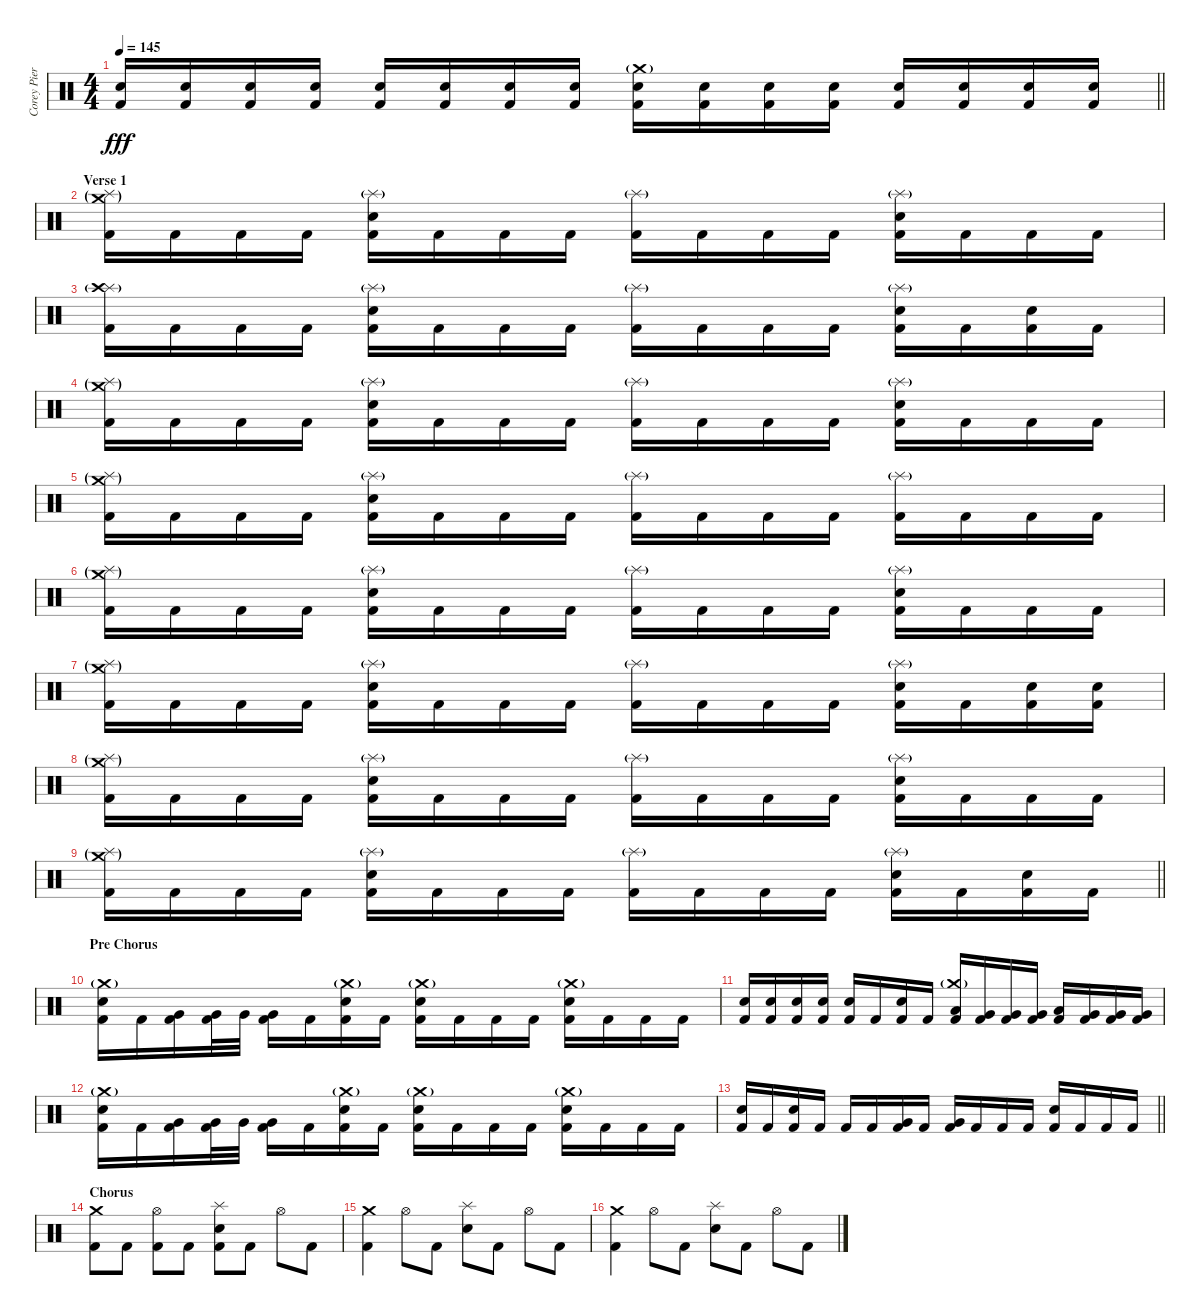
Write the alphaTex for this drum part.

\track ("Corey Pierce" "Corey Pier") {instrument percussion}
\staff {score}
\articulation defaults
\ts (4 4)
\tempo 145
\clef neutral
\barLineRight lightlight
\ks c
("Electric Snare (hit)" "Kick (hit) 2").16{dy fff} ("Electric Snare (hit)" "Kick (hit) 2").16 ("Electric Snare (hit)" "Kick (hit) 2").16 ("Electric Snare (hit)" "Kick (hit) 2").16 ("Electric Snare (hit)" "Kick (hit) 2").16 ("Electric Snare (hit)" "Kick (hit) 2").16 ("Electric Snare (hit)" "Kick (hit) 2").16 ("Electric Snare (hit)" "Kick (hit) 2").16 ("Crash medium (hit)"{g} "Electric Snare (hit)" "Kick (hit) 2").16 ("Electric Snare (hit)" "Kick (hit) 2").16 ("Electric Snare (hit)" "Kick (hit) 2").16 ("Electric Snare (hit)" "Kick (hit) 2").16 ("Electric Snare (hit)" "Kick (hit) 2").16 ("Electric Snare (hit)" "Kick (hit) 2").16 ("Electric Snare (hit)" "Kick (hit) 2").16 ("Electric Snare (hit)" "Kick (hit) 2").16 |
\section ("" "Verse 1")
("Splash (hit)"{g} "Crash medium (hit)"{g} "Kick (hit) 2").16 "Kick (hit) 2".16 "Kick (hit) 2".16 "Kick (hit) 2".16 ("Splash (hit)"{g} "Electric Snare (hit)" "Kick (hit) 2").16 "Kick (hit) 2".16 "Kick (hit) 2".16 "Kick (hit) 2".16 ("Splash (hit)"{g} "Kick (hit) 2").16 "Kick (hit) 2".16 "Kick (hit) 2".16 "Kick (hit) 2".16 ("Splash (hit)"{g} "Electric Snare (hit)" "Kick (hit) 2").16 "Kick (hit) 2".16 "Kick (hit) 2".16 "Kick (hit) 2".16 |
("Splash (hit)"{g} "Crash high (hit)"{g} "Kick (hit) 2").16 "Kick (hit) 2".16 "Kick (hit) 2".16 "Kick (hit) 2".16 ("Splash (hit)"{g} "Electric Snare (hit)" "Kick (hit) 2").16 "Kick (hit) 2".16 "Kick (hit) 2".16 "Kick (hit) 2".16 ("Splash (hit)"{g} "Kick (hit) 2").16 "Kick (hit) 2".16 "Kick (hit) 2".16 "Kick (hit) 2".16 ("Splash (hit)"{g} "Electric Snare (hit)" "Kick (hit) 2").16 "Kick (hit) 2".16 ("Electric Snare (hit)" "Kick (hit) 2").16 "Kick (hit) 2".16 |
("Splash (hit)"{g} "Crash medium (hit)"{g} "Kick (hit) 2").16 "Kick (hit) 2".16 "Kick (hit) 2".16 "Kick (hit) 2".16 ("Splash (hit)"{g} "Electric Snare (hit)" "Kick (hit) 2").16 "Kick (hit) 2".16 "Kick (hit) 2".16 "Kick (hit) 2".16 ("Splash (hit)"{g} "Kick (hit) 2").16 "Kick (hit) 2".16 "Kick (hit) 2".16 "Kick (hit) 2".16 ("Splash (hit)"{g} "Electric Snare (hit)" "Kick (hit) 2").16 "Kick (hit) 2".16 "Kick (hit) 2".16 "Kick (hit) 2".16 |
("Splash (hit)"{g} "Crash medium (hit)"{g} "Kick (hit) 2").16 "Kick (hit) 2".16 "Kick (hit) 2".16 "Kick (hit) 2".16 ("Splash (hit)"{g} "Electric Snare (hit)" "Kick (hit) 2").16 "Kick (hit) 2".16 "Kick (hit) 2".16 "Kick (hit) 2".16 ("Splash (hit)"{g} "Kick (hit) 2").16 "Kick (hit) 2".16 "Kick (hit) 2".16 "Kick (hit) 2".16 ("Splash (hit)"{g} "Kick (hit) 2").16 "Kick (hit) 2".16 "Kick (hit) 2".16 "Kick (hit) 2".16 |
("Splash (hit)"{g} "Crash medium (hit)"{g} "Kick (hit) 2").16 "Kick (hit) 2".16 "Kick (hit) 2".16 "Kick (hit) 2".16 ("Splash (hit)"{g} "Electric Snare (hit)" "Kick (hit) 2").16 "Kick (hit) 2".16 "Kick (hit) 2".16 "Kick (hit) 2".16 ("Splash (hit)"{g} "Kick (hit) 2").16 "Kick (hit) 2".16 "Kick (hit) 2".16 "Kick (hit) 2".16 ("Splash (hit)"{g} "Electric Snare (hit)" "Kick (hit) 2").16 "Kick (hit) 2".16 "Kick (hit) 2".16 "Kick (hit) 2".16 |
("Splash (hit)"{g} "Crash medium (hit)"{g} "Kick (hit) 2").16 "Kick (hit) 2".16 "Kick (hit) 2".16 "Kick (hit) 2".16 ("Splash (hit)"{g} "Electric Snare (hit)" "Kick (hit) 2").16 "Kick (hit) 2".16 "Kick (hit) 2".16 "Kick (hit) 2".16 ("Splash (hit)"{g} "Kick (hit) 2").16 "Kick (hit) 2".16 "Kick (hit) 2".16 "Kick (hit) 2".16 ("Splash (hit)"{g} "Electric Snare (hit)" "Kick (hit) 2").16 "Kick (hit) 2".16 ("Electric Snare (hit)" "Kick (hit) 2").16 ("Electric Snare (hit)" "Kick (hit) 2").16 |
("Splash (hit)"{g} "Crash medium (hit)"{g} "Kick (hit) 2").16 "Kick (hit) 2".16 "Kick (hit) 2".16 "Kick (hit) 2".16 ("Splash (hit)"{g} "Electric Snare (hit)" "Kick (hit) 2").16 "Kick (hit) 2".16 "Kick (hit) 2".16 "Kick (hit) 2".16 ("Splash (hit)"{g} "Kick (hit) 2").16 "Kick (hit) 2".16 "Kick (hit) 2".16 "Kick (hit) 2".16 ("Splash (hit)"{g} "Electric Snare (hit)" "Kick (hit) 2").16 "Kick (hit) 2".16 "Kick (hit) 2".16 "Kick (hit) 2".16 |
\barLineRight lightlight
("Splash (hit)"{g} "Crash medium (hit)"{g} "Kick (hit) 2").16 "Kick (hit) 2".16 "Kick (hit) 2".16 "Kick (hit) 2".16 ("Splash (hit)"{g} "Electric Snare (hit)" "Kick (hit) 2").16 "Kick (hit) 2".16 "Kick (hit) 2".16 "Kick (hit) 2".16 ("Splash (hit)"{g} "Kick (hit) 2").16 "Kick (hit) 2".16 "Kick (hit) 2".16 "Kick (hit) 2".16 ("Splash (hit)"{g} "Electric Snare (hit)" "Kick (hit) 2").16 "Kick (hit) 2".16 ("Electric Snare (hit)" "Kick (hit) 2").16 "Kick (hit) 2".16 |
\section ("" "Pre Chorus")
("Crash medium (hit)"{g} "Electric Snare (hit)" "Kick (hit) 2").16 "Kick (hit) 2".16 ("Very Low Tom (hit)" "Kick (hit) 2").16 ("Very Low Tom (hit)" "Kick (hit) 2").32 "Very Low Tom (hit)".32 ("Very Low Tom (hit)" "Kick (hit) 2").16 "Kick (hit) 2".16 ("Crash medium (hit)"{g} "Electric Snare (hit)" "Kick (hit) 2").16 "Kick (hit) 2".16 ("Crash medium (hit)"{g} "Electric Snare (hit)" "Kick (hit) 2").16 "Kick (hit) 2".16 "Kick (hit) 2".16 "Kick (hit) 2".16 ("Crash medium (hit)"{g} "Electric Snare (hit)" "Kick (hit) 2").16 "Kick (hit) 2".16 "Kick (hit) 2".16 "Kick (hit) 2".16 |
("Electric Snare (hit)" "Kick (hit) 2").16 ("Electric Snare (hit)" "Kick (hit) 2").16 ("Electric Snare (hit)" "Kick (hit) 2").16 ("Electric Snare (hit)" "Kick (hit) 2").16 ("Electric Snare (hit)" "Kick (hit) 2").16 "Kick (hit) 2".16 ("Electric Snare (hit)" "Kick (hit) 2").16 "Kick (hit) 2".16 ("Crash medium (hit)"{g} "Low Tom (hit)" "Kick (hit) 2").16 ("Very Low Tom (hit)" "Kick (hit) 2").16 ("Very Low Tom (hit)" "Kick (hit) 2").16 ("Very Low Tom (hit)" "Kick (hit) 2").16 ("Low Tom (hit)" "Kick (hit) 2").16 ("Very Low Tom (hit)" "Kick (hit) 2").16 ("Very Low Tom (hit)" "Kick (hit) 2").16 ("Very Low Tom (hit)" "Kick (hit) 2").16 |
("Crash medium (hit)"{g} "Electric Snare (hit)" "Kick (hit) 2").16 "Kick (hit) 2".16 ("Very Low Tom (hit)" "Kick (hit) 2").16 ("Very Low Tom (hit)" "Kick (hit) 2").32 "Very Low Tom (hit)".32 ("Very Low Tom (hit)" "Kick (hit) 2").16 "Kick (hit) 2".16 ("Crash medium (hit)"{g} "Electric Snare (hit)" "Kick (hit) 2").16 "Kick (hit) 2".16 ("Crash medium (hit)"{g} "Electric Snare (hit)" "Kick (hit) 2").16 "Kick (hit) 2".16 "Kick (hit) 2".16 "Kick (hit) 2".16 ("Crash medium (hit)"{g} "Electric Snare (hit)" "Kick (hit) 2").16 "Kick (hit) 2".16 "Kick (hit) 2".16 "Kick (hit) 2".16 |
\barLineRight lightlight
("Electric Snare (hit)" "Kick (hit) 2").16 "Kick (hit) 2".16 ("Electric Snare (hit)" "Kick (hit) 2").16 "Kick (hit) 2".16 "Kick (hit) 2".16 "Kick (hit) 2".16 ("Very Low Tom (hit)" "Kick (hit) 2").16 "Kick (hit) 2".16 ("Very Low Tom (hit)" "Kick (hit) 2").16 "Kick (hit) 2".16 "Kick (hit) 2".16 "Kick (hit) 2".16 ("Electric Snare (hit)" "Kick (hit) 2").16 "Kick (hit) 2".16 "Kick (hit) 2".16 "Kick (hit) 2".16 |
\section ("" "Chorus")
("Crash medium (hit)" "Kick (hit) 2").8 "Kick (hit) 2".8 ("Hi-Hat (open)" "Kick (hit) 2").8 "Kick (hit) 2".8 ("Splash (hit)" "Electric Snare (hit)" "Kick (hit) 2").8 "Kick (hit) 2".8 "Hi-Hat (open)".8 "Kick (hit) 2".8 |
("Crash medium (hit)" "Kick (hit) 2").4 "Hi-Hat (open)".8 "Kick (hit) 2".8 ("Splash (hit)" "Electric Snare (hit)").8 "Kick (hit) 2".8 "Hi-Hat (open)".8 "Kick (hit) 2".8 |
("Crash medium (hit)" "Kick (hit) 2").4 "Hi-Hat (open)".8 "Kick (hit) 2".8 ("Splash (hit)" "Electric Snare (hit)").8 "Kick (hit) 2".8 "Hi-Hat (open)".8 "Kick (hit) 2".8
